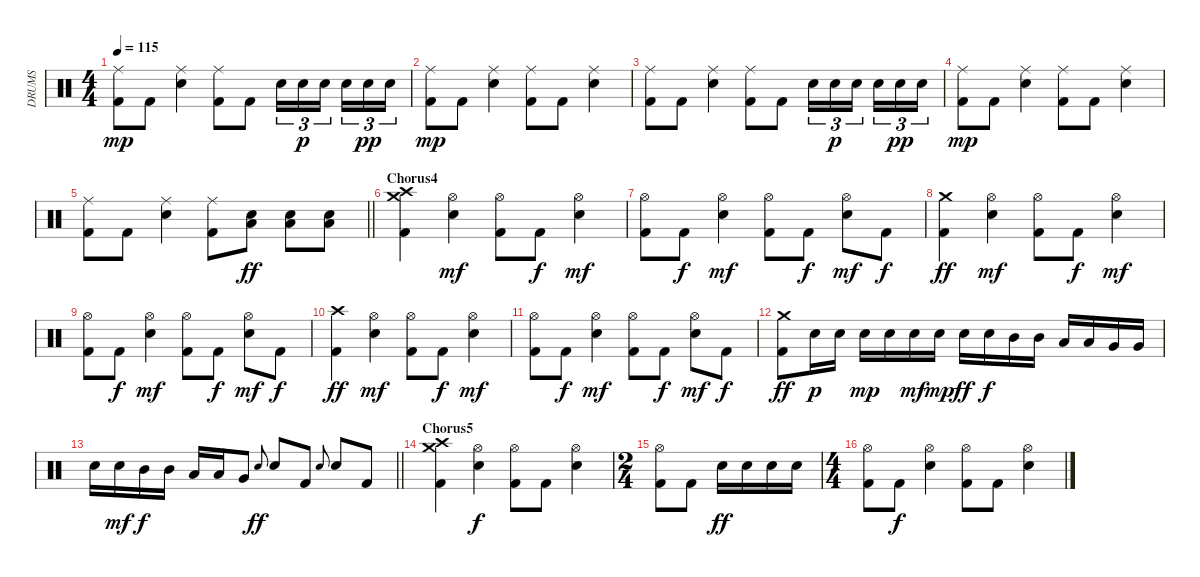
\track ("DRUMS" "DRUMS") {instrument percussion}
\staff {score}
\articulation defaults
\ts (4 4)
\tempo 115
\clef neutral
\ks c
("Ride (middle)" "Kick (hit) 2").8{dy mp} "Kick (hit) 2".8 ("Ride (middle)" "Snare (hit) 2").4 ("Ride (middle)" "Kick (hit) 2").8 "Kick (hit) 2".8 "Electric Snare (hit)".16{tu (3 2)} "Snare (hit) 2".16{tu (3 2) dy p} "Electric Snare (hit)".16{tu (3 2) beam splitsecondary} "Snare (hit) 2".16{tu (3 2)} "Electric Snare (hit)".16{tu (3 2) dy pp} "Snare (hit) 2".16{tu (3 2)} |
("Ride (middle)" "Kick (hit) 2").8{dy mp} "Kick (hit) 2".8 ("Ride (middle)" "Snare (hit) 2").4 ("Ride (middle)" "Kick (hit) 2").8 "Kick (hit) 2".8 ("Ride (middle)" "Snare (hit) 2").4 |
("Ride (middle)" "Kick (hit) 2").8 "Kick (hit) 2".8 ("Ride (middle)" "Snare (hit) 2").4 ("Ride (middle)" "Kick (hit) 2").8 "Kick (hit) 2".8 "Electric Snare (hit)".16{tu (3 2)} "Snare (hit) 2".16{tu (3 2) dy p} "Electric Snare (hit)".16{tu (3 2) beam splitsecondary} "Snare (hit) 2".16{tu (3 2)} "Electric Snare (hit)".16{tu (3 2) dy pp} "Snare (hit) 2".16{tu (3 2)} |
("Ride (middle)" "Kick (hit) 2").8{dy mp} "Kick (hit) 2".8 ("Ride (middle)" "Snare (hit) 2").4 ("Ride (middle)" "Kick (hit) 2").8 "Kick (hit) 2".8 ("Ride (middle)" "Snare (hit) 2").4 |
\barLineRight lightlight
("Ride (middle)" "Kick (hit) 2").8 "Kick (hit) 2".8 ("Ride (middle)" "Snare (hit) 2").4 ("Ride (middle)" "Kick (hit) 2").8 ("Snare (hit) 2" "Low Floor Tom (hit)").8{dy ff} ("Snare (hit) 2" "Low Floor Tom (hit)").8 ("Snare (hit) 2" "Low Floor Tom (hit)").8 |
\section ("" "Chorus4")
("Crash high (hit)" "Crash medium (hit)" "Kick (hit) 2").4 ("Hi-Hat (open)" "Snare (hit) 2").4{dy mf} ("Hi-Hat (open)" "Kick (hit) 2").8 "Kick (hit) 2".8{dy f} ("Hi-Hat (open)" "Snare (hit) 2").4{dy mf} |
("Hi-Hat (open)" "Kick (hit) 2").8 "Kick (hit) 2".8{dy f} ("Hi-Hat (open)" "Snare (hit) 2").4{dy mf} ("Hi-Hat (open)" "Kick (hit) 2").8 "Kick (hit) 2".8{dy f} ("Hi-Hat (open)" "Snare (hit) 2").8{dy mf} "Kick (hit) 2".8{dy f} |
("Crash medium (hit)" "Kick (hit) 2").4{dy ff} ("Hi-Hat (open)" "Snare (hit) 2").4{dy mf} ("Hi-Hat (open)" "Kick (hit) 2").8 "Kick (hit) 2".8{dy f} ("Hi-Hat (open)" "Snare (hit) 2").4{dy mf} |
("Hi-Hat (open)" "Kick (hit) 2").8 "Kick (hit) 2".8{dy f} ("Hi-Hat (open)" "Snare (hit) 2").4{dy mf} ("Hi-Hat (open)" "Kick (hit) 2").8 "Kick (hit) 2".8{dy f} ("Hi-Hat (open)" "Snare (hit) 2").8{dy mf} "Kick (hit) 2".8{dy f} |
("Crash high (hit)" "Kick (hit) 2").4{dy ff} ("Hi-Hat (open)" "Snare (hit) 2").4{dy mf} ("Hi-Hat (open)" "Kick (hit) 2").8 "Kick (hit) 2".8{dy f} ("Hi-Hat (open)" "Snare (hit) 2").4{dy mf} |
("Hi-Hat (open)" "Kick (hit) 2").8 "Kick (hit) 2".8{dy f} ("Hi-Hat (open)" "Snare (hit) 2").4{dy mf} ("Hi-Hat (open)" "Kick (hit) 2").8 "Kick (hit) 2".8{dy f} ("Hi-Hat (open)" "Snare (hit) 2").8{dy mf} "Kick (hit) 2".8{dy f} |
("Crash medium (hit)" "Kick (hit) 2").8{dy ff} "Electric Snare (hit)".16{dy p} "Snare (hit) 2".16 "Electric Snare (hit)".16{dy mp} "Snare (hit) 2".16 "Electric Snare (hit)".16{dy mf} "Snare (hit) 2".16{dy mp} "Electric Snare (hit)".16{dy ff} "Snare (hit) 2".16{dy f} "Mid Tom (hit)".16 "Mid Tom (hit)".16 "Low Tom (hit)".16 "Low Tom (hit)".16 "Very Low Tom (hit)".16 "Very Low Tom (hit)".16 |
\barLineRight lightlight "Electric Snare (hit)".16 "Snare (hit) 2".16{dy mf} "Mid Tom (hit)".16{dy f} "Mid Tom (hit)".16 "Low Tom (hit)".16 "Low Tom (hit)".16 "Very Low Tom (hit)".8 "Electric Snare (hit)".8{gr onbeat dy ff} "Snare (hit) 2".8 "Kick (hit) 2".8 "Electric Snare (hit)".8{gr onbeat} "Snare (hit) 2".8 "Kick (hit) 2".8
|
\section ("" "Chorus5")
("Crash medium (hit)" "Crash high (hit)" "Kick (hit) 2").4 ("Hi-Hat (open)" "Snare (hit) 2").4{dy f} ("Hi-Hat (open)" "Kick (hit) 2").8 "Kick (hit) 2".8 ("Hi-Hat (open)" "Snare (hit) 2").4 |
\ts (2 4)
("Hi-Hat (open)" "Kick (hit) 2").8 "Kick (hit) 2".8 "Electric Snare (hit)".16{dy ff} "Snare (hit) 2".16 "Electric Snare (hit)".16 "Snare (hit) 2".16 |
\ts (4 4)
("Hi-Hat (open)" "Kick (hit) 2").8 "Kick (hit) 2".8{dy f} ("Hi-Hat (open)" "Snare (hit) 2").4 ("Hi-Hat (open)" "Kick (hit) 2").8 "Kick (hit) 2".8 ("Hi-Hat (open)" "Snare (hit) 2").4
